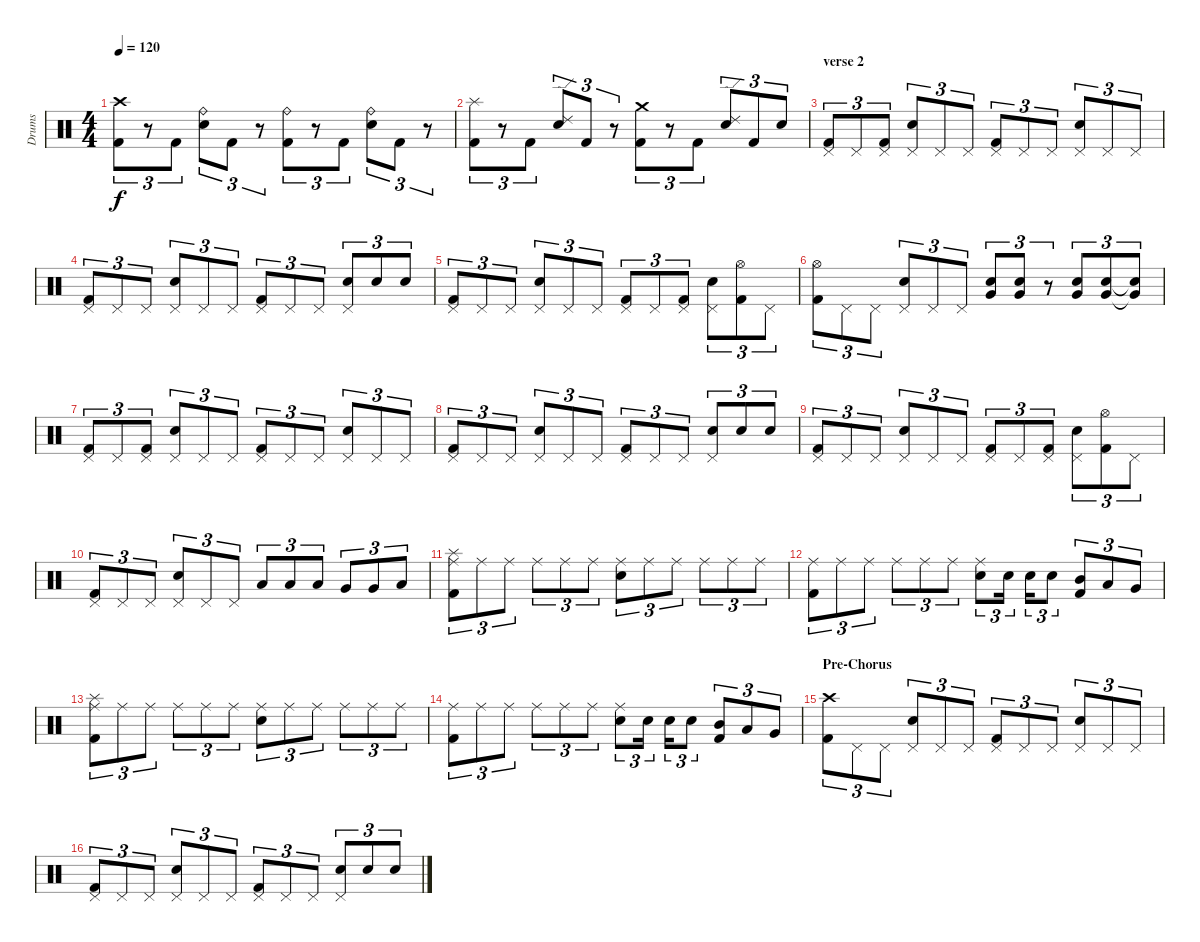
\track ("Drums" "Drums") {instrument percussion}
\staff {score}
\articulation defaults
\ts (4 4)
\tempo 120
\clef neutral
\ks c
("Crash high (hit)" "Kick (hit) 2").8{tu (3 2) dy f} r.8{tu (3 2)} "Kick (hit) 2".8{tu (3 2)} ("Ride (bell)" "Snare (hit) 2").8{tu (3 2)} "Kick (hit) 2".8{tu (3 2)} r.8{tu (3 2)} ("Ride (bell)" "Kick (hit) 2").8{tu (3 2)} r.8{tu (3 2)} "Kick (hit) 2".8{tu (3 2)} ("Ride (bell)" "Snare (hit) 2").8{tu (3 2)} "Kick (hit) 2".8{tu (3 2)} r.8{tu (3 2)} |
("Splash (hit)" "Kick (hit) 2").8{tu (3 2)} r.8{tu (3 2)} "Kick (hit) 2".8{tu (3 2)} ("Ride (edge) 2" "Snare (hit) 2").8{tu (3 2)} "Kick (hit) 2".8{tu (3 2)} r.8{tu (3 2)} ("Crash medium (hit)" "Kick (hit) 2").8{tu (3 2)} r.8{tu (3 2)} "Kick (hit) 2".8{tu (3 2)} ("Ride (edge) 2" "Snare (hit) 2").8{tu (3 2)} "Kick (hit) 2".8{tu (3 2)} "Snare (hit) 2".8{tu (3 2)} |
\section ("" "verse 2")
("Pedal Hi-Hat (hit)" "Kick (hit) 2").8{tu (3 2)} "Pedal Hi-Hat (hit)".8{tu (3 2)} ("Pedal Hi-Hat (hit)" "Kick (hit) 2").8{tu (3 2)} ("Pedal Hi-Hat (hit)" "Snare (hit) 2").8{tu (3 2)} "Pedal Hi-Hat (hit)".8{tu (3 2)} "Pedal Hi-Hat (hit)".8{tu (3 2)} ("Pedal Hi-Hat (hit)" "Kick (hit) 2").8{tu (3 2)} "Pedal Hi-Hat (hit)".8{tu (3 2)} "Pedal Hi-Hat (hit)".8{tu (3 2)} ("Pedal Hi-Hat (hit)" "Snare (hit) 2").8{tu (3 2)} "Pedal Hi-Hat (hit)".8{tu (3 2)} "Pedal Hi-Hat (hit)".8{tu (3 2)} |
("Pedal Hi-Hat (hit)" "Kick (hit) 2").8{tu (3 2)} "Pedal Hi-Hat (hit)".8{tu (3 2)} "Pedal Hi-Hat (hit)".8{tu (3 2)} ("Pedal Hi-Hat (hit)" "Snare (hit) 2").8{tu (3 2)} "Pedal Hi-Hat (hit)".8{tu (3 2)} "Pedal Hi-Hat (hit)".8{tu (3 2)} ("Pedal Hi-Hat (hit)" "Kick (hit) 2").8{tu (3 2)} "Pedal Hi-Hat (hit)".8{tu (3 2)} "Pedal Hi-Hat (hit)".8{tu (3 2)} ("Pedal Hi-Hat (hit)" "Snare (hit) 2").8{tu (3 2)} "Snare (hit) 2".8{tu (3 2)} "Snare (hit) 2".8{tu (3 2)} |
("Pedal Hi-Hat (hit)" "Kick (hit) 2").8{tu (3 2)} "Pedal Hi-Hat (hit)".8{tu (3 2)} "Pedal Hi-Hat (hit)".8{tu (3 2)} ("Pedal Hi-Hat (hit)" "Snare (hit) 2").8{tu (3 2)} "Pedal Hi-Hat (hit)".8{tu (3 2)} "Pedal Hi-Hat (hit)".8{tu (3 2)} ("Pedal Hi-Hat (hit)" "Kick (hit) 2").8{tu (3 2)} "Pedal Hi-Hat (hit)".8{tu (3 2)} ("Pedal Hi-Hat (hit)" "Kick (hit) 2").8{tu (3 2)} ("Pedal Hi-Hat (hit)" "Snare (hit) 2").8{tu (3 2)} ("Hi-Hat (open)" "Kick (hit) 2").8{tu (3 2)} "Pedal Hi-Hat (hit)".8{tu (3 2)} |
("Hi-Hat (open)" "Kick (hit) 2").8{tu (3 2)} "Pedal Hi-Hat (hit)".8{tu (3 2)} "Pedal Hi-Hat (hit)".8{tu (3 2)} ("Pedal Hi-Hat (hit)" "Snare (hit) 2").8{tu (3 2)} "Pedal Hi-Hat (hit)".8{tu (3 2)} "Pedal Hi-Hat (hit)".8{tu (3 2)} ("Very Low Tom (hit)" "Snare (hit) 2").8{tu (3 2)} ("Very Low Tom (hit)" "Snare (hit) 2").8{tu (3 2)} r.8{tu (3 2)} ("Very Low Tom (hit)" "Snare (hit) 2").8{tu (3 2)} ("Very Low Tom (hit)" "Snare (hit) 2").8{tu (3 2)} ("Very Low Tom (hit)"{t} "Snare (hit) 2"{t}).8{tu (3 2)} |
("Pedal Hi-Hat (hit)" "Kick (hit) 2").8{tu (3 2)} "Pedal Hi-Hat (hit)".8{tu (3 2)} ("Pedal Hi-Hat (hit)" "Kick (hit) 2").8{tu (3 2)} ("Pedal Hi-Hat (hit)" "Snare (hit) 2").8{tu (3 2)} "Pedal Hi-Hat (hit)".8{tu (3 2)} "Pedal Hi-Hat (hit)".8{tu (3 2)} ("Pedal Hi-Hat (hit)" "Kick (hit) 2").8{tu (3 2)} "Pedal Hi-Hat (hit)".8{tu (3 2)} "Pedal Hi-Hat (hit)".8{tu (3 2)} ("Pedal Hi-Hat (hit)" "Snare (hit) 2").8{tu (3 2)} "Pedal Hi-Hat (hit)".8{tu (3 2)} "Pedal Hi-Hat (hit)".8{tu (3 2)} |
("Pedal Hi-Hat (hit)" "Kick (hit) 2").8{tu (3 2)} "Pedal Hi-Hat (hit)".8{tu (3 2)} "Pedal Hi-Hat (hit)".8{tu (3 2)} ("Pedal Hi-Hat (hit)" "Snare (hit) 2").8{tu (3 2)} "Pedal Hi-Hat (hit)".8{tu (3 2)} "Pedal Hi-Hat (hit)".8{tu (3 2)} ("Pedal Hi-Hat (hit)" "Kick (hit) 2").8{tu (3 2)} "Pedal Hi-Hat (hit)".8{tu (3 2)} "Pedal Hi-Hat (hit)".8{tu (3 2)} ("Pedal Hi-Hat (hit)" "Snare (hit) 2").8{tu (3 2)} "Snare (hit) 2".8{tu (3 2)} "Snare (hit) 2".8{tu (3 2)} |
("Pedal Hi-Hat (hit)" "Kick (hit) 2").8{tu (3 2)} "Pedal Hi-Hat (hit)".8{tu (3 2)} "Pedal Hi-Hat (hit)".8{tu (3 2)} ("Pedal Hi-Hat (hit)" "Snare (hit) 2").8{tu (3 2)} "Pedal Hi-Hat (hit)".8{tu (3 2)} "Pedal Hi-Hat (hit)".8{tu (3 2)} ("Pedal Hi-Hat (hit)" "Kick (hit) 2").8{tu (3 2)} "Pedal Hi-Hat (hit)".8{tu (3 2)} ("Pedal Hi-Hat (hit)" "Kick (hit) 2").8{tu (3 2)} ("Pedal Hi-Hat (hit)" "Snare (hit) 2").8{tu (3 2)} ("Hi-Hat (open)" "Kick (hit) 2").8{tu (3 2)} "Pedal Hi-Hat (hit)".8{tu (3 2)} |
("Pedal Hi-Hat (hit)" "Kick (hit) 2").8{tu (3 2)} "Pedal Hi-Hat (hit)".8{tu (3 2)} "Pedal Hi-Hat (hit)".8{tu (3 2)} ("Pedal Hi-Hat (hit)" "Snare (hit) 2").8{tu (3 2)} "Pedal Hi-Hat (hit)".8{tu (3 2)} "Pedal Hi-Hat (hit)".8{tu (3 2)} "Low Tom (hit)".8{tu (3 2)} "Low Tom (hit)".8{tu (3 2)} "Low Tom (hit)".8{tu (3 2)} "Very Low Tom (hit)".8{tu (3 2)} "Very Low Tom (hit)".8{tu (3 2)} "Low Floor Tom (hit)".8{tu (3 2)} |
("Ride (middle)" "Splash (hit)" "Kick (hit) 2").8{tu (3 2)} "Ride (middle)".8{tu (3 2)} "Ride (middle)".8{tu (3 2)} "Ride (middle)".8{tu (3 2)} "Ride (middle)".8{tu (3 2)} "Ride (middle)".8{tu (3 2)} ("Ride (middle)" "Snare (hit) 2").8{tu (3 2)} "Ride (middle)".8{tu (3 2)} "Ride (middle)".8{tu (3 2)} "Ride (middle)".8{tu (3 2)} "Ride (middle)".8{tu (3 2)} "Ride (middle)".8{tu (3 2)} |
("Ride (middle)" "Kick (hit) 2").8{tu (3 2)} "Ride (middle)".8{tu (3 2)} "Ride (middle)".8{tu (3 2)} "Ride (middle)".8{tu (3 2)} "Ride (middle)".8{tu (3 2)} "Ride (middle)".8{tu (3 2)} ("Ride (middle)" "Snare (hit) 2").8{tu (3 2)} "Snare (hit) 2".16{tu (3 2)} "Snare (hit) 2".16{tu (3 2)} "Snare (hit) 2".8{tu (3 2)} ("Mid Tom (hit)" "Kick (hit) 2").8{tu (3 2)} "Low Tom (hit)".8{tu (3 2)} "Very Low Tom (hit)".8{tu (3 2)} |
("Ride (middle)" "Splash (hit)" "Kick (hit) 2").8{tu (3 2)} "Ride (middle)".8{tu (3 2)} "Ride (middle)".8{tu (3 2)} "Ride (middle)".8{tu (3 2)} "Ride (middle)".8{tu (3 2)} "Ride (middle)".8{tu (3 2)} ("Ride (middle)" "Snare (hit) 2").8{tu (3 2)} "Ride (middle)".8{tu (3 2)} "Ride (middle)".8{tu (3 2)} "Ride (middle)".8{tu (3 2)} "Ride (middle)".8{tu (3 2)} "Ride (middle)".8{tu (3 2)} |
("Ride (middle)" "Kick (hit) 2").8{tu (3 2)} "Ride (middle)".8{tu (3 2)} "Ride (middle)".8{tu (3 2)} "Ride (middle)".8{tu (3 2)} "Ride (middle)".8{tu (3 2)} "Ride (middle)".8{tu (3 2)} ("Ride (middle)" "Snare (hit) 2").8{tu (3 2)} "Snare (hit) 2".16{tu (3 2)} "Snare (hit) 2".16{tu (3 2)} "Snare (hit) 2".8{tu (3 2)} ("Mid Tom (hit)" "Kick (hit) 2").8{tu (3 2)} "Low Tom (hit)".8{tu (3 2)} "Very Low Tom (hit)".8{tu (3 2)} |
\section ("" "Pre-Chorus")
("Crash high (hit)" "Kick (hit) 2").8{tu (3 2)} "Pedal Hi-Hat (hit)".8{tu (3 2)} "Pedal Hi-Hat (hit)".8{tu (3 2)} ("Pedal Hi-Hat (hit)" "Snare (hit) 2").8{tu (3 2)} "Pedal Hi-Hat (hit)".8{tu (3 2)} "Pedal Hi-Hat (hit)".8{tu (3 2)} ("Pedal Hi-Hat (hit)" "Kick (hit) 2").8{tu (3 2)} "Pedal Hi-Hat (hit)".8{tu (3 2)} "Pedal Hi-Hat (hit)".8{tu (3 2)} ("Pedal Hi-Hat (hit)" "Snare (hit) 2").8{tu (3 2)} "Pedal Hi-Hat (hit)".8{tu (3 2)} "Pedal Hi-Hat (hit)".8{tu (3 2)} |
("Pedal Hi-Hat (hit)" "Kick (hit) 2").8{tu (3 2)} "Pedal Hi-Hat (hit)".8{tu (3 2)} "Pedal Hi-Hat (hit)".8{tu (3 2)} ("Pedal Hi-Hat (hit)" "Snare (hit) 2").8{tu (3 2)} "Pedal Hi-Hat (hit)".8{tu (3 2)} "Pedal Hi-Hat (hit)".8{tu (3 2)} ("Pedal Hi-Hat (hit)" "Kick (hit) 2").8{tu (3 2)} "Pedal Hi-Hat (hit)".8{tu (3 2)} "Pedal Hi-Hat (hit)".8{tu (3 2)} ("Pedal Hi-Hat (hit)" "Snare (hit) 2").8{tu (3 2)} "Snare (hit) 2".8{tu (3 2)} "Snare (hit) 2".8{tu (3 2)}
